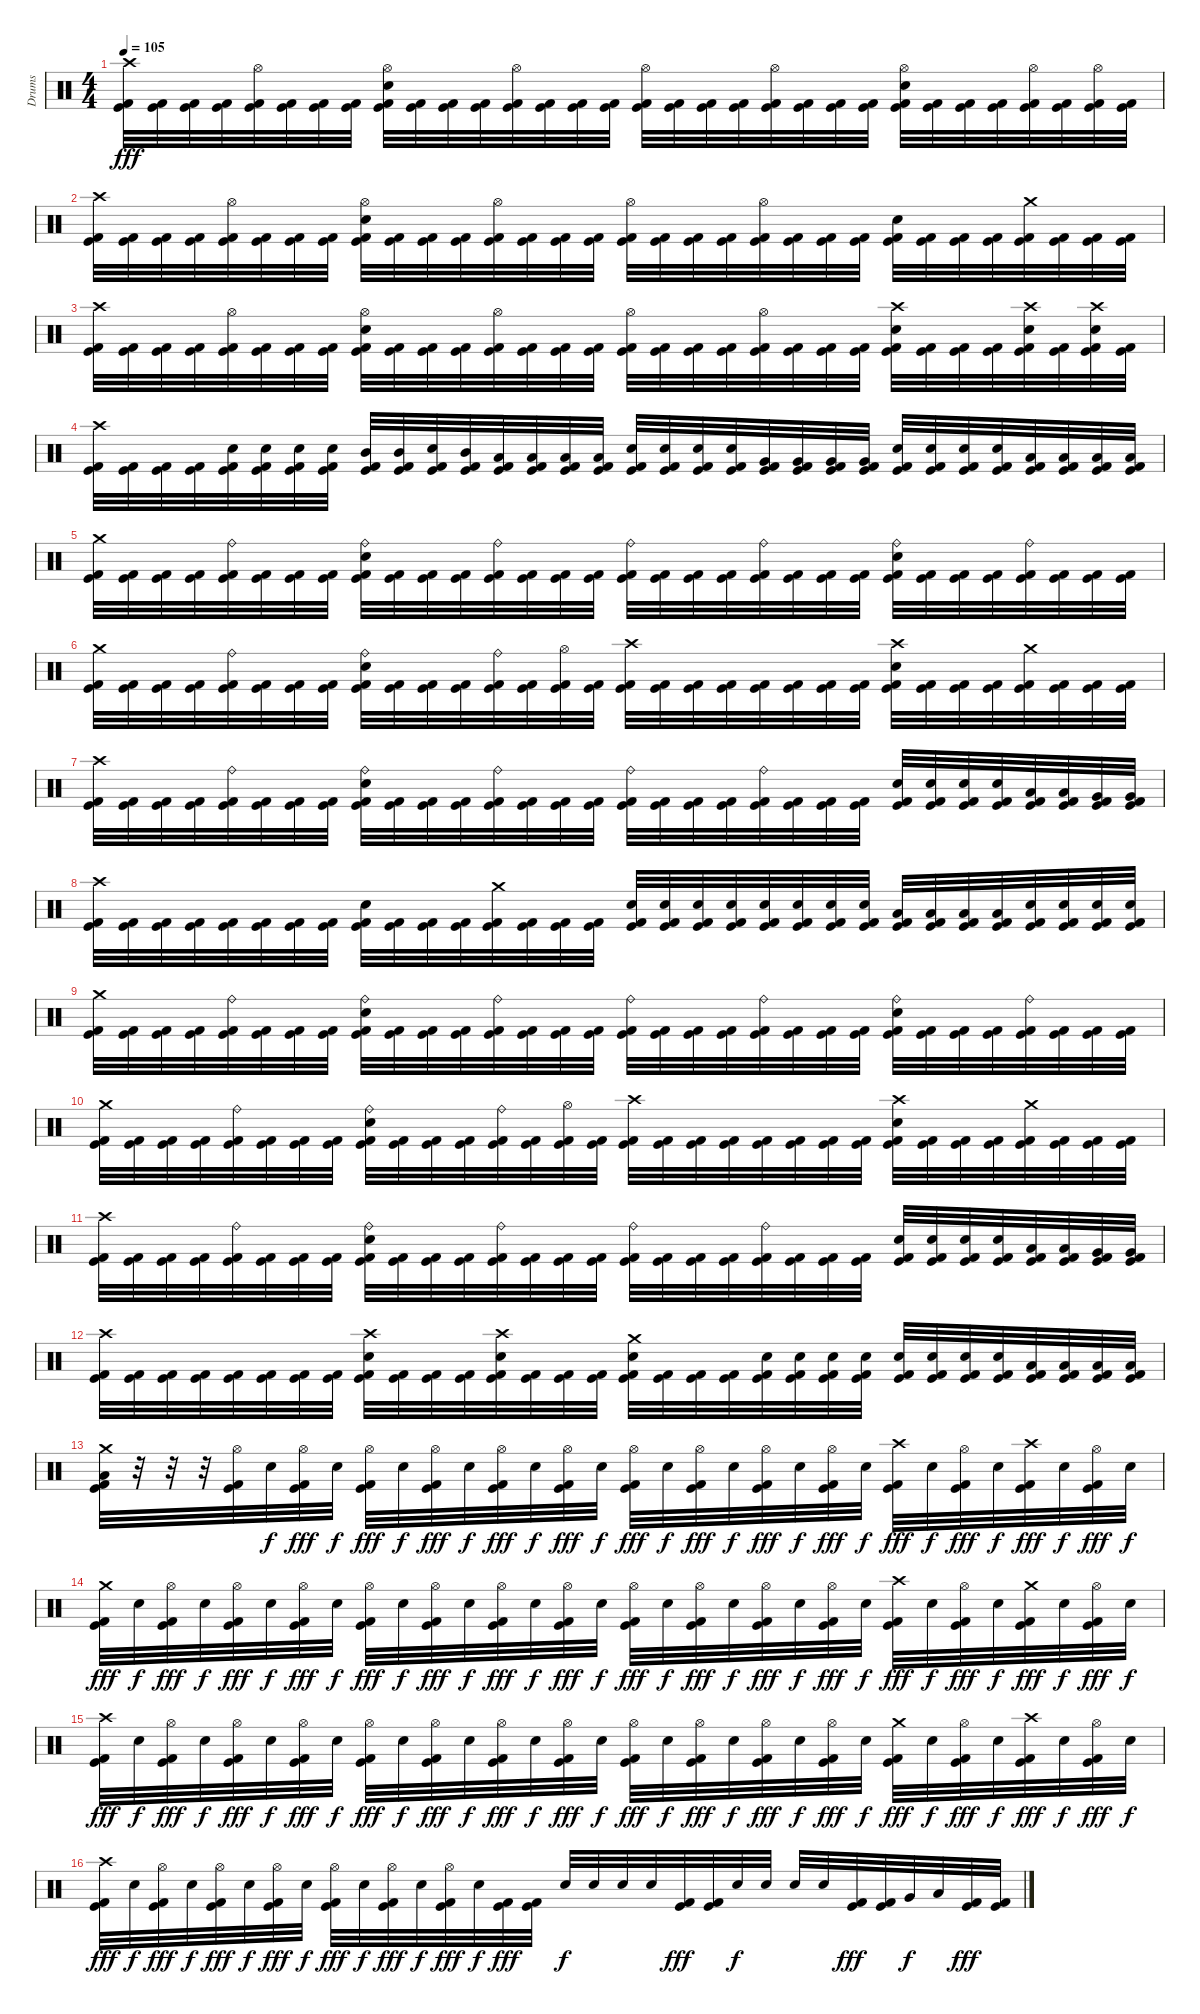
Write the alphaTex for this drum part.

\track ("Drums" "Drums") {instrument percussion}
\staff {score}
\articulation defaults
\ts (4 4)
\tempo 105
\clef neutral
\ks c
("Crash high (hit)" "Kick (hit)" "Kick (hit) 2").32{dy fff} ("Kick (hit)" "Kick (hit) 2").32 ("Kick (hit)" "Kick (hit) 2").32 ("Kick (hit)" "Kick (hit) 2").32 ("Hi-Hat (open)" "Kick (hit)" "Kick (hit) 2").32 ("Kick (hit)" "Kick (hit) 2").32 ("Kick (hit)" "Kick (hit) 2").32 ("Kick (hit)" "Kick (hit) 2").32 ("Hi-Hat (open)" "Electric Snare (hit)" "Kick (hit)" "Kick (hit) 2").32 ("Kick (hit)" "Kick (hit) 2").32 ("Kick (hit)" "Kick (hit) 2").32 ("Kick (hit)" "Kick (hit) 2").32 ("Hi-Hat (open)" "Kick (hit)" "Kick (hit) 2").32 ("Kick (hit)" "Kick (hit) 2").32 ("Kick (hit)" "Kick (hit) 2").32 ("Kick (hit)" "Kick (hit) 2").32 ("Hi-Hat (open)" "Kick (hit)" "Kick (hit) 2").32 ("Kick (hit)" "Kick (hit) 2").32 ("Kick (hit)" "Kick (hit) 2").32 ("Kick (hit)" "Kick (hit) 2").32 ("Hi-Hat (open)" "Kick (hit)" "Kick (hit) 2").32 ("Kick (hit)" "Kick (hit) 2").32 ("Kick (hit)" "Kick (hit) 2").32 ("Kick (hit)" "Kick (hit) 2").32 ("Hi-Hat (open)" "Electric Snare (hit)" "Kick (hit)" "Kick (hit) 2").32 ("Kick (hit)" "Kick (hit) 2").32 ("Kick (hit)" "Kick (hit) 2").32 ("Kick (hit)" "Kick (hit) 2").32 ("Hi-Hat (open)" "Kick (hit)" "Kick (hit) 2").32 ("Kick (hit)" "Kick (hit) 2").32 ("Hi-Hat (open)" "Kick (hit)" "Kick (hit) 2").32 ("Kick (hit)" "Kick (hit) 2").32 |
("Crash high (hit)" "Kick (hit)" "Kick (hit) 2").32 ("Kick (hit)" "Kick (hit) 2").32 ("Kick (hit)" "Kick (hit) 2").32 ("Kick (hit)" "Kick (hit) 2").32 ("Hi-Hat (open)" "Kick (hit)" "Kick (hit) 2").32 ("Kick (hit)" "Kick (hit) 2").32 ("Kick (hit)" "Kick (hit) 2").32 ("Kick (hit)" "Kick (hit) 2").32 ("Hi-Hat (open)" "Electric Snare (hit)" "Kick (hit)" "Kick (hit) 2").32 ("Kick (hit)" "Kick (hit) 2").32 ("Kick (hit)" "Kick (hit) 2").32 ("Kick (hit)" "Kick (hit) 2").32 ("Hi-Hat (open)" "Kick (hit)" "Kick (hit) 2").32 ("Kick (hit)" "Kick (hit) 2").32 ("Kick (hit)" "Kick (hit) 2").32 ("Kick (hit)" "Kick (hit) 2").32 ("Hi-Hat (open)" "Kick (hit)" "Kick (hit) 2").32 ("Kick (hit)" "Kick (hit) 2").32 ("Kick (hit)" "Kick (hit) 2").32 ("Kick (hit)" "Kick (hit) 2").32 ("Hi-Hat (open)" "Kick (hit)" "Kick (hit) 2").32 ("Kick (hit)" "Kick (hit) 2").32 ("Kick (hit)" "Kick (hit) 2").32 ("Kick (hit)" "Kick (hit) 2").32 ("Electric Snare (hit)" "Kick (hit)" "Kick (hit) 2").32 ("Kick (hit)" "Kick (hit) 2").32 ("Kick (hit)" "Kick (hit) 2").32 ("Kick (hit)" "Kick (hit) 2").32 ("Crash medium (hit)" "Kick (hit)" "Kick (hit) 2").32 ("Kick (hit)" "Kick (hit) 2").32 ("Kick (hit)" "Kick (hit) 2").32 ("Kick (hit)" "Kick (hit) 2").32 |
("Crash high (hit)" "Kick (hit)" "Kick (hit) 2").32 ("Kick (hit)" "Kick (hit) 2").32 ("Kick (hit)" "Kick (hit) 2").32 ("Kick (hit)" "Kick (hit) 2").32 ("Hi-Hat (open)" "Kick (hit)" "Kick (hit) 2").32 ("Kick (hit)" "Kick (hit) 2").32 ("Kick (hit)" "Kick (hit) 2").32 ("Kick (hit)" "Kick (hit) 2").32 ("Hi-Hat (open)" "Electric Snare (hit)" "Kick (hit)" "Kick (hit) 2").32 ("Kick (hit)" "Kick (hit) 2").32 ("Kick (hit)" "Kick (hit) 2").32 ("Kick (hit)" "Kick (hit) 2").32 ("Hi-Hat (open)" "Kick (hit)" "Kick (hit) 2").32 ("Kick (hit)" "Kick (hit) 2").32 ("Kick (hit)" "Kick (hit) 2").32 ("Kick (hit)" "Kick (hit) 2").32 ("Hi-Hat (open)" "Kick (hit)" "Kick (hit) 2").32 ("Kick (hit)" "Kick (hit) 2").32 ("Kick (hit)" "Kick (hit) 2").32 ("Kick (hit)" "Kick (hit) 2").32 ("Hi-Hat (open)" "Kick (hit)" "Kick (hit) 2").32 ("Kick (hit)" "Kick (hit) 2").32 ("Kick (hit)" "Kick (hit) 2").32 ("Kick (hit)" "Kick (hit) 2").32 ("Crash high (hit)" "Electric Snare (hit)" "Kick (hit)" "Kick (hit) 2").32 ("Kick (hit)" "Kick (hit) 2").32 ("Kick (hit)" "Kick (hit) 2").32 ("Kick (hit)" "Kick (hit) 2").32 ("Crash high (hit)" "Electric Snare (hit)" "Kick (hit)" "Kick (hit) 2").32 ("Kick (hit)" "Kick (hit) 2").32 ("Crash high (hit)" "Electric Snare (hit)" "Kick (hit)" "Kick (hit) 2").32 ("Kick (hit)" "Kick (hit) 2").32 |
("Crash high (hit)" "Kick (hit)" "Kick (hit) 2").32 ("Kick (hit)" "Kick (hit) 2").32 ("Kick (hit)" "Kick (hit) 2").32 ("Kick (hit)" "Kick (hit) 2").32 ("Electric Snare (hit)" "Kick (hit)" "Kick (hit) 2").32 ("Electric Snare (hit)" "Kick (hit)" "Kick (hit) 2").32 ("Electric Snare (hit)" "Kick (hit)" "Kick (hit) 2").32 ("Electric Snare (hit)" "Kick (hit)" "Kick (hit) 2").32 ("Mid Tom (hit)" "Kick (hit)" "Kick (hit) 2").32 ("Mid Tom (hit)" "Kick (hit)" "Kick (hit) 2").32 ("Electric Snare (hit)" "Kick (hit)" "Kick (hit) 2").32 ("Mid Tom (hit)" "Kick (hit)" "Kick (hit) 2").32 ("Low Tom (hit)" "Kick (hit)" "Kick (hit) 2").32 ("Low Tom (hit)" "Kick (hit)" "Kick (hit) 2").32 ("Low Tom (hit)" "Kick (hit)" "Kick (hit) 2").32 ("Low Tom (hit)" "Kick (hit)" "Kick (hit) 2").32 ("Electric Snare (hit)" "Kick (hit)" "Kick (hit) 2").32 ("Electric Snare (hit)" "Kick (hit)" "Kick (hit) 2").32 ("Electric Snare (hit)" "Kick (hit)" "Kick (hit) 2").32 ("Electric Snare (hit)" "Kick (hit)" "Kick (hit) 2").32 ("Very Low Tom (hit)" "Kick (hit)" "Kick (hit) 2").32 ("Very Low Tom (hit)" "Kick (hit)" "Kick (hit) 2").32 ("Very Low Tom (hit)" "Kick (hit)" "Kick (hit) 2").32 ("Very Low Tom (hit)" "Kick (hit)" "Kick (hit) 2").32 ("Electric Snare (hit)" "Kick (hit)" "Kick (hit) 2").32 ("Electric Snare (hit)" "Kick (hit)" "Kick (hit) 2").32 ("Electric Snare (hit)" "Kick (hit)" "Kick (hit) 2").32 ("Electric Snare (hit)" "Kick (hit)" "Kick (hit) 2").32 ("Low Floor Tom (hit)" "Kick (hit)" "Kick (hit) 2").32 ("Low Floor Tom (hit)" "Kick (hit)" "Kick (hit) 2").32 ("Low Floor Tom (hit)" "Kick (hit)" "Kick (hit) 2").32 ("Low Floor Tom (hit)" "Kick (hit)" "Kick (hit) 2").32 |
("Crash medium (hit)" "Kick (hit)" "Kick (hit) 2").32 ("Kick (hit)" "Kick (hit) 2").32 ("Kick (hit)" "Kick (hit) 2").32 ("Kick (hit)" "Kick (hit) 2").32 ("Ride (bell)" "Kick (hit)" "Kick (hit) 2").32 ("Kick (hit)" "Kick (hit) 2").32 ("Kick (hit)" "Kick (hit) 2").32 ("Kick (hit)" "Kick (hit) 2").32 ("Ride (bell)" "Electric Snare (hit)" "Kick (hit)" "Kick (hit) 2").32 ("Kick (hit)" "Kick (hit) 2").32 ("Kick (hit)" "Kick (hit) 2").32 ("Kick (hit)" "Kick (hit) 2").32 ("Ride (bell)" "Kick (hit)" "Kick (hit) 2").32 ("Kick (hit)" "Kick (hit) 2").32 ("Kick (hit)" "Kick (hit) 2").32 ("Kick (hit)" "Kick (hit) 2").32 ("Ride (bell)" "Kick (hit)" "Kick (hit) 2").32 ("Kick (hit)" "Kick (hit) 2").32 ("Kick (hit)" "Kick (hit) 2").32 ("Kick (hit)" "Kick (hit) 2").32 ("Ride (bell)" "Kick (hit)" "Kick (hit) 2").32 ("Kick (hit)" "Kick (hit) 2").32 ("Kick (hit)" "Kick (hit) 2").32 ("Kick (hit)" "Kick (hit) 2").32 ("Ride (bell)" "Electric Snare (hit)" "Kick (hit)" "Kick (hit) 2").32 ("Kick (hit)" "Kick (hit) 2").32 ("Kick (hit)" "Kick (hit) 2").32 ("Kick (hit)" "Kick (hit) 2").32 ("Ride (bell)" "Kick (hit)" "Kick (hit) 2").32 ("Kick (hit)" "Kick (hit) 2").32 ("Kick (hit)" "Kick (hit) 2").32 ("Kick (hit)" "Kick (hit) 2").32 |
("Crash medium (hit)" "Kick (hit)" "Kick (hit) 2").32 ("Kick (hit)" "Kick (hit) 2").32 ("Kick (hit)" "Kick (hit) 2").32 ("Kick (hit)" "Kick (hit) 2").32 ("Ride (bell)" "Kick (hit)" "Kick (hit) 2").32 ("Kick (hit)" "Kick (hit) 2").32 ("Kick (hit)" "Kick (hit) 2").32 ("Kick (hit)" "Kick (hit) 2").32 ("Ride (bell)" "Electric Snare (hit)" "Kick (hit)" "Kick (hit) 2").32 ("Kick (hit)" "Kick (hit) 2").32 ("Kick (hit)" "Kick (hit) 2").32 ("Kick (hit)" "Kick (hit) 2").32 ("Ride (bell)" "Kick (hit)" "Kick (hit) 2").32 ("Kick (hit)" "Kick (hit) 2").32 ("Hi-Hat (open)" "Kick (hit)" "Kick (hit) 2").32 ("Kick (hit)" "Kick (hit) 2").32 ("Crash high (hit)" "Kick (hit)" "Kick (hit) 2").32 ("Kick (hit)" "Kick (hit) 2").32 ("Kick (hit)" "Kick (hit) 2").32 ("Kick (hit)" "Kick (hit) 2").32 ("Kick (hit)" "Kick (hit) 2").32 ("Kick (hit)" "Kick (hit) 2").32 ("Kick (hit)" "Kick (hit) 2").32 ("Kick (hit)" "Kick (hit) 2").32 ("Crash high (hit)" "Electric Snare (hit)" "Kick (hit)" "Kick (hit) 2").32 ("Kick (hit)" "Kick (hit) 2").32 ("Kick (hit)" "Kick (hit) 2").32 ("Kick (hit)" "Kick (hit) 2").32 ("Crash medium (hit)" "Kick (hit)" "Kick (hit) 2").32 ("Kick (hit)" "Kick (hit) 2").32 ("Kick (hit)" "Kick (hit) 2").32 ("Kick (hit)" "Kick (hit) 2").32 |
("Crash high (hit)" "Kick (hit)" "Kick (hit) 2").32 ("Kick (hit)" "Kick (hit) 2").32 ("Kick (hit)" "Kick (hit) 2").32 ("Kick (hit)" "Kick (hit) 2").32 ("Ride (bell)" "Kick (hit)" "Kick (hit) 2").32 ("Kick (hit)" "Kick (hit) 2").32 ("Kick (hit)" "Kick (hit) 2").32 ("Kick (hit)" "Kick (hit) 2").32 ("Ride (bell)" "Electric Snare (hit)" "Kick (hit)" "Kick (hit) 2").32 ("Kick (hit)" "Kick (hit) 2").32 ("Kick (hit)" "Kick (hit) 2").32 ("Kick (hit)" "Kick (hit) 2").32 ("Ride (bell)" "Kick (hit)" "Kick (hit) 2").32 ("Kick (hit)" "Kick (hit) 2").32 ("Kick (hit)" "Kick (hit) 2").32 ("Kick (hit)" "Kick (hit) 2").32 ("Ride (bell)" "Kick (hit)" "Kick (hit) 2").32 ("Kick (hit)" "Kick (hit) 2").32 ("Kick (hit)" "Kick (hit) 2").32 ("Kick (hit)" "Kick (hit) 2").32 ("Ride (bell)" "Kick (hit)" "Kick (hit) 2").32 ("Kick (hit)" "Kick (hit) 2").32 ("Kick (hit)" "Kick (hit) 2").32 ("Kick (hit)" "Kick (hit) 2").32 ("Electric Snare (hit)" "Kick (hit)" "Kick (hit) 2").32 ("Electric Snare (hit)" "Kick (hit)" "Kick (hit) 2").32 ("Electric Snare (hit)" "Kick (hit)" "Kick (hit) 2").32 ("Electric Snare (hit)" "Kick (hit)" "Kick (hit) 2").32 ("Low Tom (hit)" "Kick (hit)" "Kick (hit) 2").32 ("Low Tom (hit)" "Kick (hit)" "Kick (hit) 2").32 ("Very Low Tom (hit)" "Kick (hit)" "Kick (hit) 2").32 ("Very Low Tom (hit)" "Kick (hit)" "Kick (hit) 2").32 |
("Crash high (hit)" "Kick (hit)" "Kick (hit) 2").32 ("Kick (hit)" "Kick (hit) 2").32 ("Kick (hit)" "Kick (hit) 2").32 ("Kick (hit)" "Kick (hit) 2").32 ("Kick (hit)" "Kick (hit) 2").32 ("Kick (hit)" "Kick (hit) 2").32 ("Kick (hit)" "Kick (hit) 2").32 ("Kick (hit)" "Kick (hit) 2").32 ("Electric Snare (hit)" "Kick (hit)" "Kick (hit) 2").32 ("Kick (hit)" "Kick (hit) 2").32 ("Kick (hit)" "Kick (hit) 2").32 ("Kick (hit)" "Kick (hit) 2").32 ("Crash medium (hit)" "Kick (hit)" "Kick (hit) 2").32 ("Kick (hit)" "Kick (hit) 2").32 ("Kick (hit)" "Kick (hit) 2").32 ("Kick (hit)" "Kick (hit) 2").32 ("Electric Snare (hit)" "Kick (hit)" "Kick (hit) 2").32 ("Electric Snare (hit)" "Kick (hit)" "Kick (hit) 2").32 ("Electric Snare (hit)" "Kick (hit)" "Kick (hit) 2").32 ("Electric Snare (hit)" "Kick (hit)" "Kick (hit) 2").32 ("Electric Snare (hit)" "Kick (hit)" "Kick (hit) 2").32 ("Electric Snare (hit)" "Kick (hit)" "Kick (hit) 2").32 ("Electric Snare (hit)" "Kick (hit)" "Kick (hit) 2").32 ("Electric Snare (hit)" "Kick (hit)" "Kick (hit) 2").32 ("Low Tom (hit)" "Kick (hit)" "Kick (hit) 2").32 ("Low Tom (hit)" "Kick (hit)" "Kick (hit) 2").32 ("Low Tom (hit)" "Kick (hit)" "Kick (hit) 2").32 ("Low Tom (hit)" "Kick (hit)" "Kick (hit) 2").32 ("Electric Snare (hit)" "Kick (hit)" "Kick (hit) 2").32 ("Electric Snare (hit)" "Kick (hit)" "Kick (hit) 2").32 ("Electric Snare (hit)" "Kick (hit)" "Kick (hit) 2").32 ("Electric Snare (hit)" "Kick (hit)" "Kick (hit) 2").32 |
("Crash medium (hit)" "Kick (hit)" "Kick (hit) 2").32 ("Kick (hit)" "Kick (hit) 2").32 ("Kick (hit)" "Kick (hit) 2").32 ("Kick (hit)" "Kick (hit) 2").32 ("Ride (bell)" "Kick (hit)" "Kick (hit) 2").32 ("Kick (hit)" "Kick (hit) 2").32 ("Kick (hit)" "Kick (hit) 2").32 ("Kick (hit)" "Kick (hit) 2").32 ("Ride (bell)" "Electric Snare (hit)" "Kick (hit)" "Kick (hit) 2").32 ("Kick (hit)" "Kick (hit) 2").32 ("Kick (hit)" "Kick (hit) 2").32 ("Kick (hit)" "Kick (hit) 2").32 ("Ride (bell)" "Kick (hit)" "Kick (hit) 2").32 ("Kick (hit)" "Kick (hit) 2").32 ("Kick (hit)" "Kick (hit) 2").32 ("Kick (hit)" "Kick (hit) 2").32 ("Ride (bell)" "Kick (hit)" "Kick (hit) 2").32 ("Kick (hit)" "Kick (hit) 2").32 ("Kick (hit)" "Kick (hit) 2").32 ("Kick (hit)" "Kick (hit) 2").32 ("Ride (bell)" "Kick (hit)" "Kick (hit) 2").32 ("Kick (hit)" "Kick (hit) 2").32 ("Kick (hit)" "Kick (hit) 2").32 ("Kick (hit)" "Kick (hit) 2").32 ("Ride (bell)" "Electric Snare (hit)" "Kick (hit)" "Kick (hit) 2").32 ("Kick (hit)" "Kick (hit) 2").32 ("Kick (hit)" "Kick (hit) 2").32 ("Kick (hit)" "Kick (hit) 2").32 ("Ride (bell)" "Kick (hit)" "Kick (hit) 2").32 ("Kick (hit)" "Kick (hit) 2").32 ("Kick (hit)" "Kick (hit) 2").32 ("Kick (hit)" "Kick (hit) 2").32 |
("Crash medium (hit)" "Kick (hit)" "Kick (hit) 2").32 ("Kick (hit)" "Kick (hit) 2").32 ("Kick (hit)" "Kick (hit) 2").32 ("Kick (hit)" "Kick (hit) 2").32 ("Ride (bell)" "Kick (hit)" "Kick (hit) 2").32 ("Kick (hit)" "Kick (hit) 2").32 ("Kick (hit)" "Kick (hit) 2").32 ("Kick (hit)" "Kick (hit) 2").32 ("Ride (bell)" "Electric Snare (hit)" "Kick (hit)" "Kick (hit) 2").32 ("Kick (hit)" "Kick (hit) 2").32 ("Kick (hit)" "Kick (hit) 2").32 ("Kick (hit)" "Kick (hit) 2").32 ("Ride (bell)" "Kick (hit)" "Kick (hit) 2").32 ("Kick (hit)" "Kick (hit) 2").32 ("Hi-Hat (open)" "Kick (hit)" "Kick (hit) 2").32 ("Kick (hit)" "Kick (hit) 2").32 ("Crash high (hit)" "Kick (hit)" "Kick (hit) 2").32 ("Kick (hit)" "Kick (hit) 2").32 ("Kick (hit)" "Kick (hit) 2").32 ("Kick (hit)" "Kick (hit) 2").32 ("Kick (hit)" "Kick (hit) 2").32 ("Kick (hit)" "Kick (hit) 2").32 ("Kick (hit)" "Kick (hit) 2").32 ("Kick (hit)" "Kick (hit) 2").32 ("Crash high (hit)" "Electric Snare (hit)" "Kick (hit)" "Kick (hit) 2").32 ("Kick (hit)" "Kick (hit) 2").32 ("Kick (hit)" "Kick (hit) 2").32 ("Kick (hit)" "Kick (hit) 2").32 ("Crash medium (hit)" "Kick (hit)" "Kick (hit) 2").32 ("Kick (hit)" "Kick (hit) 2").32 ("Kick (hit)" "Kick (hit) 2").32 ("Kick (hit)" "Kick (hit) 2").32 |
("Crash high (hit)" "Kick (hit)" "Kick (hit) 2").32 ("Kick (hit)" "Kick (hit) 2").32 ("Kick (hit)" "Kick (hit) 2").32 ("Kick (hit)" "Kick (hit) 2").32 ("Ride (bell)" "Kick (hit)" "Kick (hit) 2").32 ("Kick (hit)" "Kick (hit) 2").32 ("Kick (hit)" "Kick (hit) 2").32 ("Kick (hit)" "Kick (hit) 2").32 ("Ride (bell)" "Electric Snare (hit)" "Kick (hit)" "Kick (hit) 2").32 ("Kick (hit)" "Kick (hit) 2").32 ("Kick (hit)" "Kick (hit) 2").32 ("Kick (hit)" "Kick (hit) 2").32 ("Ride (bell)" "Kick (hit)" "Kick (hit) 2").32 ("Kick (hit)" "Kick (hit) 2").32 ("Kick (hit)" "Kick (hit) 2").32 ("Kick (hit)" "Kick (hit) 2").32 ("Ride (bell)" "Kick (hit)" "Kick (hit) 2").32 ("Kick (hit)" "Kick (hit) 2").32 ("Kick (hit)" "Kick (hit) 2").32 ("Kick (hit)" "Kick (hit) 2").32 ("Ride (bell)" "Kick (hit)" "Kick (hit) 2").32 ("Kick (hit)" "Kick (hit) 2").32 ("Kick (hit)" "Kick (hit) 2").32 ("Kick (hit)" "Kick (hit) 2").32 ("Electric Snare (hit)" "Kick (hit)" "Kick (hit) 2").32 ("Electric Snare (hit)" "Kick (hit)" "Kick (hit) 2").32 ("Electric Snare (hit)" "Kick (hit)" "Kick (hit) 2").32 ("Electric Snare (hit)" "Kick (hit)" "Kick (hit) 2").32 ("Low Tom (hit)" "Kick (hit)" "Kick (hit) 2").32 ("Low Tom (hit)" "Kick (hit)" "Kick (hit) 2").32 ("Very Low Tom (hit)" "Kick (hit)" "Kick (hit) 2").32 ("Very Low Tom (hit)" "Kick (hit)" "Kick (hit) 2").32 |
("Crash high (hit)" "Kick (hit)" "Kick (hit) 2").32 ("Kick (hit)" "Kick (hit) 2").32 ("Kick (hit)" "Kick (hit) 2").32 ("Kick (hit)" "Kick (hit) 2").32 ("Kick (hit)" "Kick (hit) 2").32 ("Kick (hit)" "Kick (hit) 2").32 ("Kick (hit)" "Kick (hit) 2").32 ("Kick (hit)" "Kick (hit) 2").32 ("Crash high (hit)" "Electric Snare (hit)" "Kick (hit)" "Kick (hit) 2").32 ("Kick (hit)" "Kick (hit) 2").32 ("Kick (hit)" "Kick (hit) 2").32 ("Kick (hit)" "Kick (hit) 2").32 ("Crash high (hit)" "Electric Snare (hit)" "Kick (hit)" "Kick (hit) 2").32 ("Kick (hit)" "Kick (hit) 2").32 ("Kick (hit)" "Kick (hit) 2").32 ("Kick (hit)" "Kick (hit) 2").32 ("Crash medium (hit)" "Electric Snare (hit)" "Kick (hit)" "Kick (hit) 2").32 ("Kick (hit)" "Kick (hit) 2").32 ("Kick (hit)" "Kick (hit) 2").32 ("Kick (hit)" "Kick (hit) 2").32 ("Electric Snare (hit)" "Kick (hit)" "Kick (hit) 2").32 ("Electric Snare (hit)" "Kick (hit)" "Kick (hit) 2").32 ("Electric Snare (hit)" "Kick (hit)" "Kick (hit) 2").32 ("Electric Snare (hit)" "Kick (hit)" "Kick (hit) 2").32 ("Electric Snare (hit)" "Kick (hit)" "Kick (hit) 2").32 ("Electric Snare (hit)" "Kick (hit)" "Kick (hit) 2").32 ("Electric Snare (hit)" "Kick (hit)" "Kick (hit) 2").32 ("Electric Snare (hit)" "Kick (hit)" "Kick (hit) 2").32 ("Low Floor Tom (hit)" "Kick (hit)" "Kick (hit) 2").32 ("Low Floor Tom (hit)" "Kick (hit)" "Kick (hit) 2").32 ("Low Floor Tom (hit)" "Kick (hit)" "Kick (hit) 2").32 ("Low Floor Tom (hit)" "Kick (hit)" "Kick (hit) 2").32 |
("Crash medium (hit)" "Low Floor Tom (hit)" "Kick (hit)" "Kick (hit) 2").32 r.32 r.32 r.32 ("Hi-Hat (open)" "Kick (hit)" "Kick (hit) 2").32 "Electric Snare (hit)".32{dy f} ("Hi-Hat (open)" "Kick (hit)" "Kick (hit) 2").32{dy fff} "Electric Snare (hit)".32{dy f} ("Hi-Hat (open)" "Kick (hit)" "Kick (hit) 2").32{dy fff} "Electric Snare (hit)".32{dy f} ("Hi-Hat (open)" "Kick (hit)" "Kick (hit) 2").32{dy fff} "Electric Snare (hit)".32{dy f} ("Hi-Hat (open)" "Kick (hit)" "Kick (hit) 2").32{dy fff} "Electric Snare (hit)".32{dy f} ("Hi-Hat (open)" "Kick (hit)" "Kick (hit) 2").32{dy fff} "Electric Snare (hit)".32{dy f} ("Hi-Hat (open)" "Kick (hit)" "Kick (hit) 2").32{dy fff} "Electric Snare (hit)".32{dy f} ("Hi-Hat (open)" "Kick (hit)" "Kick (hit) 2").32{dy fff} "Electric Snare (hit)".32{dy f} ("Hi-Hat (open)" "Kick (hit)" "Kick (hit) 2").32{dy fff} "Electric Snare (hit)".32{dy f} ("Hi-Hat (open)" "Kick (hit)" "Kick (hit) 2").32{dy fff} "Electric Snare (hit)".32{dy f} ("Crash high (hit)" "Kick (hit)" "Kick (hit) 2").32{dy fff} "Electric Snare (hit)".32{dy f} ("Hi-Hat (open)" "Kick (hit)" "Kick (hit) 2").32{dy fff} "Electric Snare (hit)".32{dy f} ("Crash high (hit)" "Kick (hit)" "Kick (hit) 2").32{dy fff} "Electric Snare (hit)".32{dy f} ("Hi-Hat (open)" "Kick (hit)" "Kick (hit) 2").32{dy fff} "Electric Snare (hit)".32{dy f} |
("Crash medium (hit)" "Kick (hit)" "Kick (hit) 2").32{dy fff} "Electric Snare (hit)".32{dy f} ("Hi-Hat (open)" "Kick (hit)" "Kick (hit) 2").32{dy fff} "Electric Snare (hit)".32{dy f} ("Hi-Hat (open)" "Kick (hit)" "Kick (hit) 2").32{dy fff} "Electric Snare (hit)".32{dy f} ("Hi-Hat (open)" "Kick (hit)" "Kick (hit) 2").32{dy fff} "Electric Snare (hit)".32{dy f} ("Hi-Hat (open)" "Kick (hit)" "Kick (hit) 2").32{dy fff} "Electric Snare (hit)".32{dy f} ("Hi-Hat (open)" "Kick (hit)" "Kick (hit) 2").32{dy fff} "Electric Snare (hit)".32{dy f} ("Hi-Hat (open)" "Kick (hit)" "Kick (hit) 2").32{dy fff} "Electric Snare (hit)".32{dy f} ("Hi-Hat (open)" "Kick (hit)" "Kick (hit) 2").32{dy fff} "Electric Snare (hit)".32{dy f} ("Hi-Hat (open)" "Kick (hit)" "Kick (hit) 2").32{dy fff} "Electric Snare (hit)".32{dy f} ("Hi-Hat (open)" "Kick (hit)" "Kick (hit) 2").32{dy fff} "Electric Snare (hit)".32{dy f} ("Hi-Hat (open)" "Kick (hit)" "Kick (hit) 2").32{dy fff} "Electric Snare (hit)".32{dy f} ("Hi-Hat (open)" "Kick (hit)" "Kick (hit) 2").32{dy fff} "Electric Snare (hit)".32{dy f} ("Crash high (hit)" "Kick (hit)" "Kick (hit) 2").32{dy fff} "Electric Snare (hit)".32{dy f} ("Hi-Hat (open)" "Kick (hit)" "Kick (hit) 2").32{dy fff} "Electric Snare (hit)".32{dy f} ("Crash medium (hit)" "Kick (hit)" "Kick (hit) 2").32{dy fff} "Electric Snare (hit)".32{dy f} ("Hi-Hat (open)" "Kick (hit)" "Kick (hit) 2").32{dy fff} "Electric Snare (hit)".32{dy f} |
("Crash high (hit)" "Kick (hit)" "Kick (hit) 2").32{dy fff} "Electric Snare (hit)".32{dy f} ("Hi-Hat (open)" "Kick (hit)" "Kick (hit) 2").32{dy fff} "Electric Snare (hit)".32{dy f} ("Hi-Hat (open)" "Kick (hit)" "Kick (hit) 2").32{dy fff} "Electric Snare (hit)".32{dy f} ("Hi-Hat (open)" "Kick (hit)" "Kick (hit) 2").32{dy fff} "Electric Snare (hit)".32{dy f} ("Hi-Hat (open)" "Kick (hit)" "Kick (hit) 2").32{dy fff} "Electric Snare (hit)".32{dy f} ("Hi-Hat (open)" "Kick (hit)" "Kick (hit) 2").32{dy fff} "Electric Snare (hit)".32{dy f} ("Hi-Hat (open)" "Kick (hit)" "Kick (hit) 2").32{dy fff} "Electric Snare (hit)".32{dy f} ("Hi-Hat (open)" "Kick (hit)" "Kick (hit) 2").32{dy fff} "Electric Snare (hit)".32{dy f} ("Hi-Hat (open)" "Kick (hit)" "Kick (hit) 2").32{dy fff} "Electric Snare (hit)".32{dy f} ("Hi-Hat (open)" "Kick (hit)" "Kick (hit) 2").32{dy fff} "Electric Snare (hit)".32{dy f} ("Hi-Hat (open)" "Kick (hit)" "Kick (hit) 2").32{dy fff} "Electric Snare (hit)".32{dy f} ("Hi-Hat (open)" "Kick (hit)" "Kick (hit) 2").32{dy fff} "Electric Snare (hit)".32{dy f} ("Crash medium (hit)" "Kick (hit)" "Kick (hit) 2").32{dy fff} "Electric Snare (hit)".32{dy f} ("Hi-Hat (open)" "Kick (hit)" "Kick (hit) 2").32{dy fff} "Electric Snare (hit)".32{dy f} ("Crash high (hit)" "Kick (hit)" "Kick (hit) 2").32{dy fff} "Electric Snare (hit)".32{dy f} ("Hi-Hat (open)" "Kick (hit)" "Kick (hit) 2").32{dy fff} "Electric Snare (hit)".32{dy f} |
("Crash high (hit)" "Kick (hit)" "Kick (hit) 2").32{dy fff} "Electric Snare (hit)".32{dy f} ("Hi-Hat (open)" "Kick (hit)" "Kick (hit) 2").32{dy fff} "Electric Snare (hit)".32{dy f} ("Hi-Hat (open)" "Kick (hit)" "Kick (hit) 2").32{dy fff} "Electric Snare (hit)".32{dy f} ("Hi-Hat (open)" "Kick (hit)" "Kick (hit) 2").32{dy fff} "Electric Snare (hit)".32{dy f} ("Hi-Hat (open)" "Kick (hit)" "Kick (hit) 2").32{dy fff} "Electric Snare (hit)".32{dy f} ("Hi-Hat (open)" "Kick (hit)" "Kick (hit) 2").32{dy fff} "Electric Snare (hit)".32{dy f} ("Hi-Hat (open)" "Kick (hit)" "Kick (hit) 2").32{dy fff} "Electric Snare (hit)".32{dy f} ("Kick (hit)" "Kick (hit) 2").32{dy fff} ("Kick (hit)" "Kick (hit) 2").32 "Electric Snare (hit)".32{dy f} "Electric Snare (hit)".32 "Electric Snare (hit)".32 "Electric Snare (hit)".32 ("Kick (hit)" "Kick (hit) 2").32{dy fff} ("Kick (hit)" "Kick (hit) 2").32 "Electric Snare (hit)".32{dy f} "Electric Snare (hit)".32 "Electric Snare (hit)".32 "Electric Snare (hit)".32 ("Kick (hit)" "Kick (hit) 2").32{dy fff} ("Kick (hit)" "Kick (hit) 2").32 "Very Low Tom (hit)".32{dy f} "Low Floor Tom (hit)".32 ("Kick (hit)" "Kick (hit) 2").32{dy fff} ("Kick (hit)" "Kick (hit) 2").32
